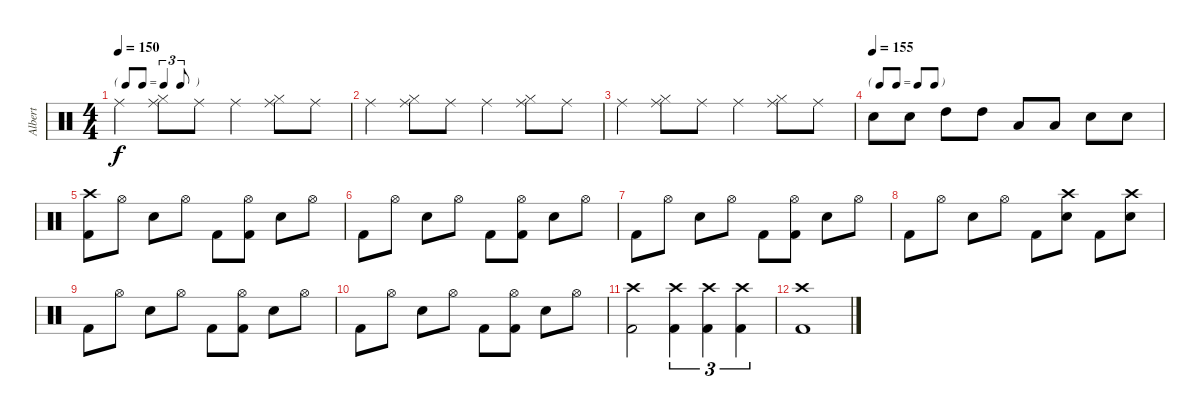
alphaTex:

\track ("Albert" "Albert") {instrument percussion}
\staff {score}
\articulation defaults
\ts (4 4)
\tf triplet8th
\tempo 150
\clef neutral
\ks c "Ride (middle)".4{dy f}
("Ride (middle)" "Hi-Hat (closed)").8 "Ride (middle)".8 "Ride (middle)".4 ("Ride (middle)" "Hi-Hat (closed)").8 "Ride (middle)".8 |
"Ride (middle)".4 ("Ride (middle)" "Hi-Hat (closed)").8 "Ride (middle)".8 "Ride (middle)".4 ("Ride (middle)" "Hi-Hat (closed)").8 "Ride (middle)".8 |
"Ride (middle)".4 ("Ride (middle)" "Hi-Hat (closed)").8 "Ride (middle)".8 "Ride (middle)".4 ("Ride (middle)" "Hi-Hat (closed)").8 "Ride (middle)".8 |
\tf none
\tempo (155)
"Electric Snare (hit)".8 "Electric Snare (hit)".8 "High Tom (hit)".8 "High Tom (hit)".8 "Low Tom (hit)".8 "Low Tom (hit)".8 "Electric Snare (hit)".8 "Electric Snare (hit)".8 |
("Crash high (hit)" "Kick (hit) 2").8 "Hi-Hat (open)".8 "Electric Snare (hit)".8 "Hi-Hat (open)".8 "Kick (hit) 2".8 ("Hi-Hat (open)" "Kick (hit) 2").8 "Electric Snare (hit)".8 "Hi-Hat (open)".8 |
"Kick (hit) 2".8 "Hi-Hat (open)".8 "Electric Snare (hit)".8 "Hi-Hat (open)".8 "Kick (hit) 2".8 ("Hi-Hat (open)" "Kick (hit) 2").8 "Electric Snare (hit)".8 "Hi-Hat (open)".8 |
"Kick (hit) 2".8 "Hi-Hat (open)".8 "Electric Snare (hit)".8 "Hi-Hat (open)".8 "Kick (hit) 2".8 ("Hi-Hat (open)" "Kick (hit) 2").8 "Electric Snare (hit)".8 "Hi-Hat (open)".8 |
"Kick (hit) 2".8 "Hi-Hat (open)".8 "Electric Snare (hit)".8 "Hi-Hat (open)".8 "Kick (hit) 2".8 ("Crash high (hit)" "Electric Snare (hit)").8 "Kick (hit) 2".8 ("Crash high (hit)" "Electric Snare (hit)").8 |
"Kick (hit) 2".8 "Hi-Hat (open)".8 "Electric Snare (hit)".8 "Hi-Hat (open)".8 "Kick (hit) 2".8 ("Hi-Hat (open)" "Kick (hit) 2").8 "Electric Snare (hit)".8 "Hi-Hat (open)".8 |
"Kick (hit) 2".8 "Hi-Hat (open)".8 "Electric Snare (hit)".8 "Hi-Hat (open)".8 "Kick (hit) 2".8 ("Hi-Hat (open)" "Kick (hit) 2").8 "Electric Snare (hit)".8 "Hi-Hat (open)".8 |
("Crash high (hit)" "Kick (hit) 2").2 ("Crash high (hit)" "Kick (hit) 2").4{tu (3 2)} ("Crash high (hit)" "Kick (hit) 2").4{tu (3 2)} ("Crash high (hit)" "Kick (hit) 2").4{tu (3 2)} |
("Crash high (hit)" "Kick (hit) 2").1
